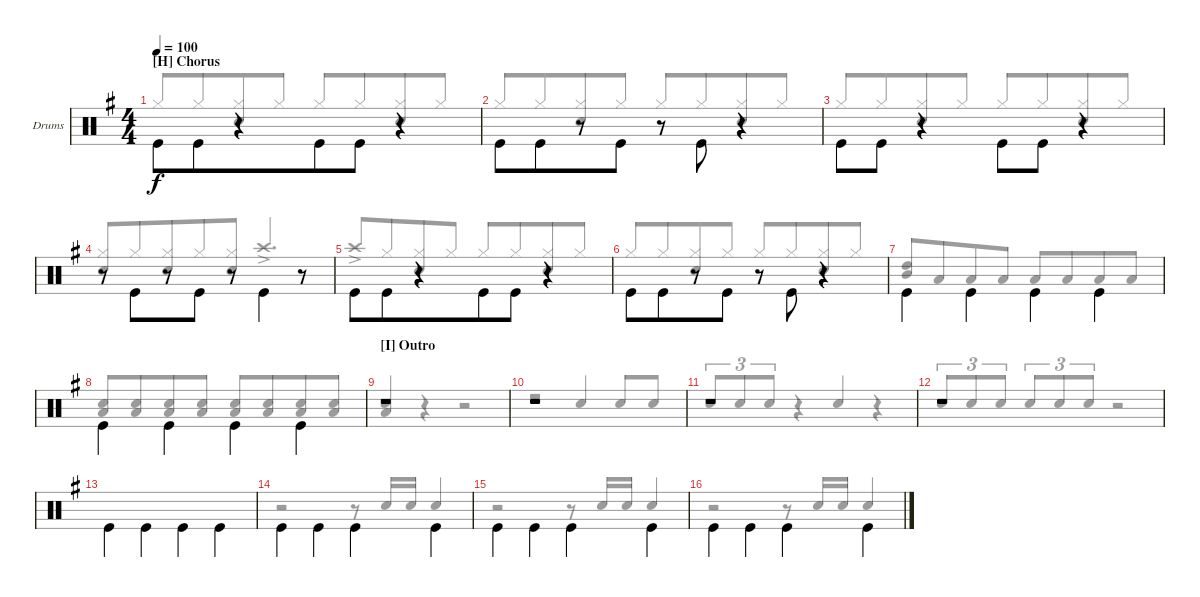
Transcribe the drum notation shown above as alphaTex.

\bracketExtendMode groupsimilarinstruments
\firstSystemTrackNameOrientation horizontal
\otherSystemsTrackNameOrientation horizontal
\track ("Drum" "Drums") {instrument percussion}
\staff {score}
\articulation defaults
\voice
\ts (4 4)
\section ("H" "Chorus")
\tempo 100
\clef neutral
\scale
1.04288
\ks g "Kick (hit)".8{dy f beam invert} "Kick (hit)".8{beam merge}
r.4{beam merge} "Kick (hit)".8{beam invert beam merge} "Kick (hit)".8{beam merge} r.4{beam merge} |
\scale
0.957125 "Kick (hit)".8{beam invert} "Kick (hit)".8{beam merge} r.8{beam merge} "Kick (hit)".8 r.8 "Kick (hit)".8{beam invert} r.4 |
\scale
1.04288 "Kick (hit)".8{beam invert} "Kick (hit)".8 r.4 "Kick (hit)".8{beam invert} "Kick (hit)".8 r.4 |
\scale
0.957125 r.8 "Kick (hit)".8{beam invert beam merge} r.8{beam merge} "Kick (hit)".8{beam split} r.8{beam split} "Kick (hit)".4{beam invert beam split} r.8{beam split} |
\scale
1.04288 "Kick (hit)".8{beam invert} "Kick (hit)".8{beam merge} r.4{beam merge} "Kick (hit)".8{beam invert beam merge} "Kick (hit)".8{beam merge} r.4{beam merge} |
\scale
0.957125 "Kick (hit)".8{beam invert} "Kick (hit)".8{beam merge} r.8{beam merge} "Kick (hit)".8 r.8 "Kick (hit)".8{beam invert} r.4 |
\scale
1.04288 "Kick (hit)".4{beam invert} "Kick (hit)".4{beam invert} "Kick (hit)".4{beam invert} "Kick (hit)".4{beam invert} |
\scale
0.957125 "Kick (hit)".4{beam invert} "Kick (hit)".4{beam invert} "Kick (hit)".4{beam invert} "Kick (hit)".4{beam invert} |
\section ("I" "Outro")
\scale
1.04288 r.1 |
\scale
0.957125 r.1 |
\scale
1.04288 r.1 |
\scale
0.957125 r.1 |
\scale
1.04288 "Kick (hit)".4{beam invert} "Kick (hit)".4{beam invert} "Kick (hit)".4{beam invert} "Kick (hit)".4{beam invert} |
\scale
0.957125 "Kick (hit)".4{beam invert} "Kick (hit)".4{beam invert} "Kick (hit)".4{beam invert} "Kick (hit)".4{beam invert} |
\scale
1.04288 "Kick (hit)".4{beam invert} "Kick (hit)".4{beam invert} "Kick (hit)".4{beam invert} "Kick (hit)".4{beam invert} |
\scale
0.957125 "Kick (hit)".4{beam invert} "Kick (hit)".4{beam invert} "Kick (hit)".4{beam invert} "Kick (hit)".4{beam invert}
\voice
\clef neutral
\ottava regular
\simile none
\scale
1.04288
\ks g "Hi-Hat (closed)".8{dy f beam invert beam merge} "Hi-Hat (closed)".8{beam merge}
("Hi-Hat (closed)" "Snare (hit) 2").8{beam merge} "Hi-Hat (closed)".8{beam split} "Hi-Hat (closed)".8{beam invert beam merge} "Hi-Hat (closed)".8{beam merge} ("Hi-Hat (closed)" "Snare (hit) 2").8{beam merge} "Hi-Hat (closed)".8{beam merge} |
\scale
0.957125 "Hi-Hat (closed)".8{beam invert beam merge} "Hi-Hat (closed)".8{beam merge} ("Hi-Hat (closed)" "Snare (hit) 2").8{beam merge} "Hi-Hat (closed)".8{beam split} "Hi-Hat (closed)".8{beam invert beam merge} "Hi-Hat (closed)".8{beam merge} ("Hi-Hat (closed)" "Snare (hit) 2").8{beam merge} "Hi-Hat (closed)".8{beam merge} |
\scale
1.04288 "Hi-Hat (closed)".8{beam invert beam merge} "Hi-Hat (closed)".8{beam merge} ("Hi-Hat (closed)" "Snare (hit) 2").8{beam merge} "Hi-Hat (closed)".8{beam split} "Hi-Hat (closed)".8{beam invert beam merge} "Hi-Hat (closed)".8{beam merge} ("Hi-Hat (closed)" "Snare (hit) 2").8{beam merge} "Hi-Hat (closed)".8{beam merge} |
\scale
0.957125 ("Hi-Hat (closed)" "Snare (hit) 2").8{beam invert} "Hi-Hat (closed)".8{beam merge} ("Hi-Hat (closed)" "Snare (hit) 2").8 "Hi-Hat (closed)".8{beam merge} ("Hi-Hat (closed)" "Snare (hit) 2").8{beam merge} "Crash high (hit)"{ac}.4{d beam invert} |
\scale
1.04288 "Crash high (hit)"{ac}.8{beam invert beam merge} "Hi-Hat (closed)".8{beam merge} ("Hi-Hat (closed)" "Snare (hit) 2").8{beam merge} "Hi-Hat (closed)".8{beam split} "Hi-Hat (closed)".8{beam invert beam merge} "Hi-Hat (closed)".8{beam merge} ("Hi-Hat (closed)" "Snare (hit) 2").8{beam merge} "Hi-Hat (closed)".8{beam merge} |
\scale
0.957125 "Hi-Hat (closed)".8{beam invert beam merge} "Hi-Hat (closed)".8{beam merge} ("Hi-Hat (closed)" "Snare (hit) 2").8{beam merge} "Hi-Hat (closed)".8{beam split} "Hi-Hat (closed)".8{beam invert beam merge} "Hi-Hat (closed)".8{beam merge} ("Hi-Hat (closed)" "Snare (hit) 2").8{beam merge} "Hi-Hat (closed)".8{beam merge} |
\scale
1.04288 ("High Tom (hit)" "Mid Tom (hit)").8{beam invert beam merge} "Low Tom (hit)".8{beam merge} "Low Tom (hit)".8{beam merge} "Low Tom (hit)".8{beam split} "Low Tom (hit)".8{beam invert beam merge} "Low Tom (hit)".8{beam merge} "Low Tom (hit)".8{beam merge} "Low Tom (hit)".8{beam merge} |
\scale
0.957125 ("Snare (hit) 2" "Low Tom (hit)").8{beam invert beam merge} ("Snare (hit) 2" "Low Tom (hit)").8{beam merge} ("Snare (hit) 2" "Low Tom (hit)").8{beam merge} ("Snare (hit) 2" "Low Tom (hit)").8{beam split} ("Snare (hit) 2" "Low Tom (hit)").8{beam invert beam merge} ("Snare (hit) 2" "Low Tom (hit)").8{beam merge} ("Snare (hit) 2" "Low Tom (hit)").8{beam merge} ("Snare (hit) 2" "Low Tom (hit)").8{beam merge} |
\scale
1.04288 ("Snare (hit) 2" "Low Tom (hit)").4{beam invert} r.4 r.2 |
\scale
0.957125 r.2 "Snare (hit) 2".4{beam invert} "Snare (hit) 2".8{beam invert} "Snare (hit) 2".8 |
\scale
1.04288 "Snare (hit) 2".8{tu (3 2) beam invert} "Snare (hit) 2".8{tu (3 2)} "Snare (hit) 2".8{tu (3 2)} r.4 "Snare (hit) 2".4{beam invert} r.4 |
\scale
0.957125 "Snare (hit) 2".8{tu (3 2) beam invert} "Snare (hit) 2".8{tu (3 2)} "Snare (hit) 2".8{tu (3 2)} "Snare (hit) 2".8{tu (3 2) beam invert} "Snare (hit) 2".8{tu (3 2)} "Snare (hit) 2".8{tu (3 2)} r.2 |
\scale
1.04288 |
\scale
0.957125 r.2 r.8 "Snare (hit) 2".16{beam invert} "Snare (hit) 2".16 "Snare (hit) 2".4{beam invert} |
\scale
1.04288 r.2 r.8 "Snare (hit) 2".16{beam invert} "Snare (hit) 2".16 "Snare (hit) 2".4{beam invert} |
\scale
0.957125 r.2 r.8 "Snare (hit) 2".16{beam invert} "Snare (hit) 2".16 "Snare (hit) 2".4{beam invert}
